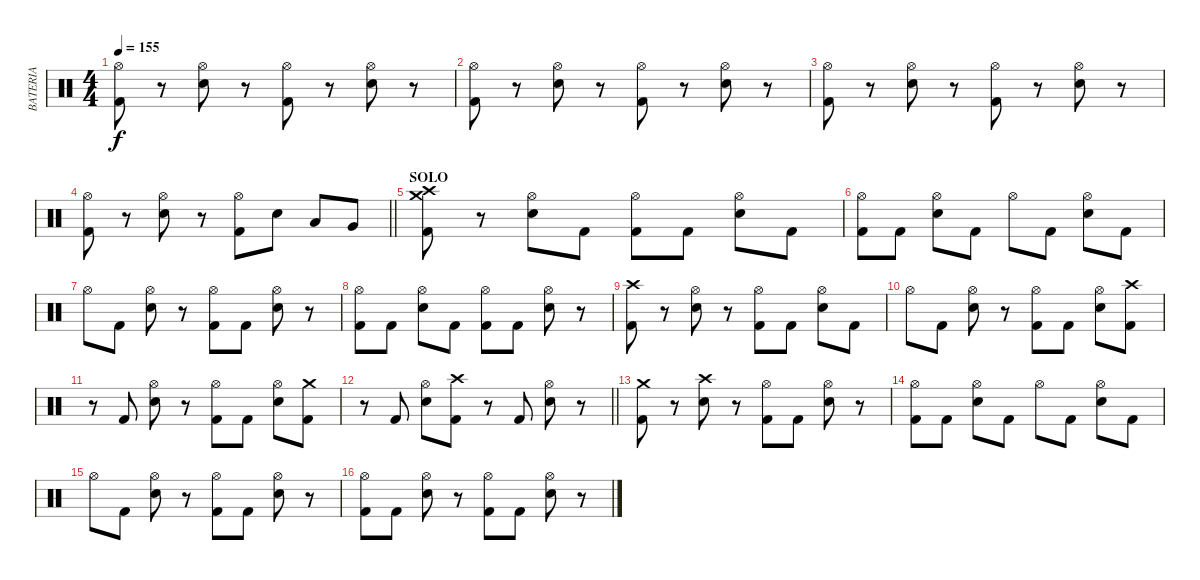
\track ("BATERIA" "BATERIA") {instrument percussion}
\staff {score}
\articulation defaults
\ts (4 4)
\tempo 155
\clef neutral
\ks c
("Kick (hit) 2" "Hi-Hat (open)").8{dy f} r.8 ("Hi-Hat (open)" "Electric Snare (hit)").8 r.8 ("Kick (hit) 2" "Hi-Hat (open)").8 r.8 ("Hi-Hat (open)" "Electric Snare (hit)").8 r.8 |
("Kick (hit) 2" "Hi-Hat (open)").8 r.8 ("Hi-Hat (open)" "Electric Snare (hit)").8 r.8 ("Kick (hit) 2" "Hi-Hat (open)").8 r.8 ("Hi-Hat (open)" "Electric Snare (hit)").8 r.8 |
("Kick (hit) 2" "Hi-Hat (open)").8 r.8 ("Hi-Hat (open)" "Electric Snare (hit)").8 r.8 ("Kick (hit) 2" "Hi-Hat (open)").8 r.8 ("Hi-Hat (open)" "Electric Snare (hit)").8 r.8 |
\barLineRight lightlight
("Kick (hit) 2" "Hi-Hat (open)").8 r.8 ("Hi-Hat (open)" "Electric Snare (hit)").8 r.8 ("Kick (hit) 2" "Hi-Hat (open)").8 "Electric Snare (hit)".8 "Low Tom (hit)".8 "Very Low Tom (hit)".8 |
\section ("" "SOLO")
("Kick (hit) 2" "Crash medium (hit)" "Crash high (hit)").8 r.8 ("Electric Snare (hit)" "Hi-Hat (open)").8 "Kick (hit) 2".8 ("Kick (hit) 2" "Hi-Hat (open)").8 "Kick (hit) 2".8 ("Electric Snare (hit)" "Hi-Hat (open)").8 "Kick (hit) 2".8 |
("Kick (hit) 2" "Hi-Hat (open)").8 "Kick (hit) 2".8 ("Electric Snare (hit)" "Hi-Hat (open)").8 "Kick (hit) 2".8 "Hi-Hat (open)".8 "Kick (hit) 2".8 ("Electric Snare (hit)" "Hi-Hat (open)").8 "Kick (hit) 2".8 |
"Hi-Hat (open)".8 "Kick (hit) 2".8 ("Electric Snare (hit)" "Hi-Hat (open)").8 r.8 ("Kick (hit) 2" "Hi-Hat (open)").8 "Kick (hit) 2".8 ("Electric Snare (hit)" "Hi-Hat (open)").8 r.8 |
("Kick (hit) 2" "Hi-Hat (open)").8 "Kick (hit) 2".8 ("Electric Snare (hit)" "Hi-Hat (open)").8 "Kick (hit) 2".8 ("Kick (hit) 2" "Hi-Hat (open)").8 "Kick (hit) 2".8 ("Electric Snare (hit)" "Hi-Hat (open)").8 r.8 |
("Kick (hit) 2" "Crash high (hit)").8 r.8 ("Electric Snare (hit)" "Hi-Hat (open)").8 r.8 ("Kick (hit) 2" "Hi-Hat (open)").8 "Kick (hit) 2".8 ("Electric Snare (hit)" "Hi-Hat (open)").8 "Kick (hit) 2".8 |
"Hi-Hat (open)".8 "Kick (hit) 2".8 ("Electric Snare (hit)" "Hi-Hat (open)").8 r.8 ("Kick (hit) 2" "Hi-Hat (open)").8 "Kick (hit) 2".8 ("Electric Snare (hit)" "Hi-Hat (open)").8 ("Kick (hit) 2" "Crash high (hit)").8 |
r.8 "Kick (hit) 2".8 ("Electric Snare (hit)" "Hi-Hat (open)").8 r.8 ("Kick (hit) 2" "Hi-Hat (open)").8 "Kick (hit) 2".8 ("Electric Snare (hit)" "Hi-Hat (open)").8 ("Kick (hit) 2" "Crash medium (hit)").8 |
\barLineRight lightlight
r.8 "Kick (hit) 2".8 ("Electric Snare (hit)" "Hi-Hat (open)").8 ("Kick (hit) 2" "Crash high (hit)").8 r.8 "Kick (hit) 2".8 ("Electric Snare (hit)" "Hi-Hat (open)").8 r.8 |
("Kick (hit) 2" "Crash medium (hit)").8 r.8 ("Electric Snare (hit)" "Crash high (hit)").8 r.8 ("Kick (hit) 2" "Hi-Hat (open)").8 "Kick (hit) 2".8 ("Electric Snare (hit)" "Hi-Hat (open)").8 r.8 |
("Kick (hit) 2" "Hi-Hat (open)").8 "Kick (hit) 2".8 ("Electric Snare (hit)" "Hi-Hat (open)").8 "Kick (hit) 2".8 "Hi-Hat (open)".8 "Kick (hit) 2".8 ("Electric Snare (hit)" "Hi-Hat (open)").8 "Kick (hit) 2".8 |
"Hi-Hat (open)".8 "Kick (hit) 2".8 ("Electric Snare (hit)" "Hi-Hat (open)").8 r.8 ("Kick (hit) 2" "Hi-Hat (open)").8 "Kick (hit) 2".8 ("Electric Snare (hit)" "Hi-Hat (open)").8 r.8 |
("Kick (hit) 2" "Hi-Hat (open)").8 "Kick (hit) 2".8 ("Electric Snare (hit)" "Hi-Hat (open)").8 r.8 ("Kick (hit) 2" "Hi-Hat (open)").8 "Kick (hit) 2".8 ("Electric Snare (hit)" "Hi-Hat (open)").8 r.8
